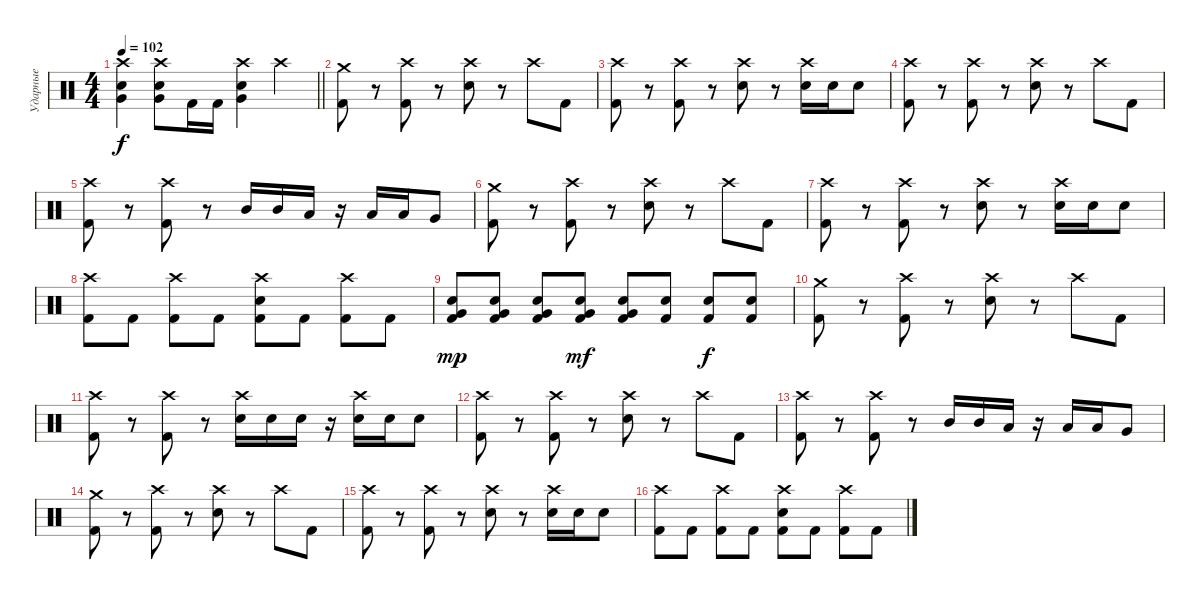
\track ("Ударные" "Ударные") {instrument percussion}
\staff {score}
\articulation defaults
\ts (4 4)
\tempo 102
\clef neutral
\barLineRight lightlight
\ks c
("Crash high (hit)" "Electric Snare (hit)" "Very Low Tom (hit)").4{dy f} ("Crash high (hit)" "Very Low Tom (hit)" "Electric Snare (hit)").8 "Kick (hit) 2".16 "Kick (hit) 2".16 ("Crash high (hit)" "Very Low Tom (hit)" "Electric Snare (hit)").4 "Crash high (hit)".4 |
("Crash medium (hit)" "Kick (hit) 2").8 r.8 ("Crash high (hit)" "Kick (hit) 2").8 r.8 ("Crash high (hit)" "Electric Snare (hit)").8 r.8 "Crash high (hit)".8 "Kick (hit) 2".8 |
("Crash high (hit)" "Kick (hit) 2").8 r.8 ("Crash high (hit)" "Kick (hit) 2").8 r.8 ("Crash high (hit)" "Electric Snare (hit)").8 r.8 ("Crash high (hit)" "Electric Snare (hit)").16 "Electric Snare (hit)".16 "Electric Snare (hit)".8 |
("Crash high (hit)" "Kick (hit) 2").8 r.8 ("Crash high (hit)" "Kick (hit) 2").8 r.8 ("Crash high (hit)" "Electric Snare (hit)").8 r.8 "Crash high (hit)".8 "Kick (hit) 2".8 |
("Crash high (hit)" "Kick (hit) 2").8 r.8 ("Crash high (hit)" "Kick (hit) 2").8 r.8 "Mid Tom (hit)".16 "Mid Tom (hit)".16 "Low Tom (hit)".16 r.16 "Low Tom (hit)".16 "Low Tom (hit)".16 "Very Low Tom (hit)".8 |
("Crash medium (hit)" "Kick (hit) 2").8 r.8 ("Crash high (hit)" "Kick (hit) 2").8 r.8 ("Crash high (hit)" "Electric Snare (hit)").8 r.8 "Crash high (hit)".8 "Kick (hit) 2".8 |
("Crash high (hit)" "Kick (hit) 2").8 r.8 ("Crash high (hit)" "Kick (hit) 2").8 r.8 ("Crash high (hit)" "Electric Snare (hit)").8 r.8 ("Crash high (hit)" "Electric Snare (hit)").16 "Electric Snare (hit)".16 "Electric Snare (hit)".8 |
("Crash high (hit)" "Kick (hit) 2").8 "Kick (hit) 2".8 ("Crash high (hit)" "Kick (hit) 2").8 "Kick (hit) 2".8 ("Crash high (hit)" "Electric Snare (hit)" "Kick (hit) 2").8 "Kick (hit) 2".8 ("Crash high (hit)" "Kick (hit) 2").8 "Kick (hit) 2".8 |
("Kick (hit) 2" "Electric Snare (hit)" "Very Low Tom (hit)").8{dy mp} ("Kick (hit) 2" "Electric Snare (hit)" "Very Low Tom (hit)").8 ("Kick (hit) 2" "Electric Snare (hit)" "Very Low Tom (hit)").8 ("Kick (hit) 2" "Electric Snare (hit)" "Very Low Tom (hit)").8{dy mf} ("Kick (hit) 2" "Electric Snare (hit)" "Very Low Tom (hit)").8 ("Kick (hit) 2" "Electric Snare (hit)").8 ("Kick (hit) 2" "Electric Snare (hit)").8{dy f} ("Kick (hit) 2" "Electric Snare (hit)").8 |
("Crash medium (hit)" "Kick (hit) 2").8 r.8 ("Crash high (hit)" "Kick (hit) 2").8 r.8 ("Crash high (hit)" "Electric Snare (hit)").8 r.8 "Crash high (hit)".8 "Kick (hit) 2".8 |
("Crash high (hit)" "Kick (hit) 2").8 r.8 ("Crash high (hit)" "Kick (hit) 2").8 r.8 ("Crash high (hit)" "Electric Snare (hit)").16 "Electric Snare (hit)".16 "Electric Snare (hit)".16 r.16 ("Crash high (hit)" "Electric Snare (hit)").16 "Electric Snare (hit)".16 "Electric Snare (hit)".8 |
("Crash high (hit)" "Kick (hit) 2").8 r.8 ("Crash high (hit)" "Kick (hit) 2").8 r.8 ("Crash high (hit)" "Electric Snare (hit)").8 r.8 "Crash high (hit)".8 "Kick (hit) 2".8 |
("Crash high (hit)" "Kick (hit) 2").8 r.8 ("Crash high (hit)" "Kick (hit) 2").8 r.8 "Mid Tom (hit)".16 "Mid Tom (hit)".16 "Low Tom (hit)".16 r.16 "Low Tom (hit)".16 "Low Tom (hit)".16 "Very Low Tom (hit)".8 |
("Crash medium (hit)" "Kick (hit) 2").8 r.8 ("Crash high (hit)" "Kick (hit) 2").8 r.8 ("Crash high (hit)" "Electric Snare (hit)").8 r.8 "Crash high (hit)".8 "Kick (hit) 2".8 |
("Crash high (hit)" "Kick (hit) 2").8 r.8 ("Crash high (hit)" "Kick (hit) 2").8 r.8 ("Crash high (hit)" "Electric Snare (hit)").8 r.8 ("Crash high (hit)" "Electric Snare (hit)").16 "Electric Snare (hit)".16 "Electric Snare (hit)".8 |
("Crash high (hit)" "Kick (hit) 2").8 "Kick (hit) 2".8 ("Crash high (hit)" "Kick (hit) 2").8 "Kick (hit) 2".8 ("Crash high (hit)" "Electric Snare (hit)" "Kick (hit) 2").8 "Kick (hit) 2".8 ("Crash high (hit)" "Kick (hit) 2").8 "Kick (hit) 2".8
